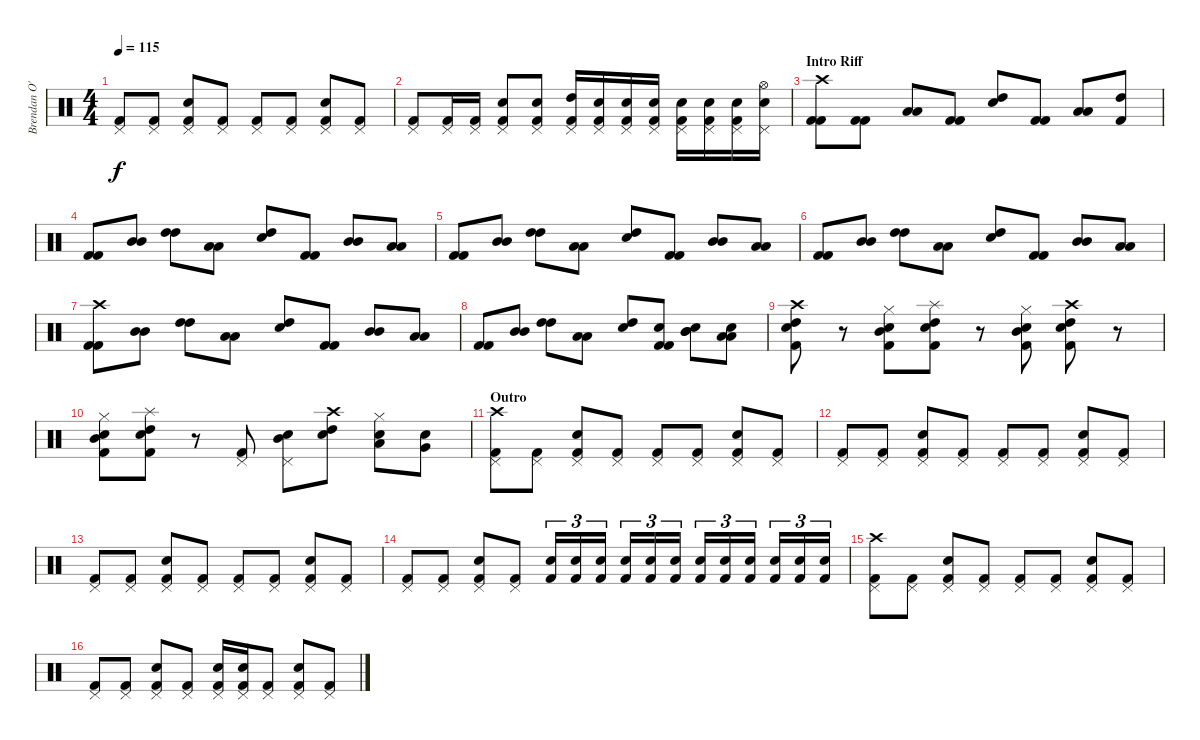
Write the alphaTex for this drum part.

\track ("Brendan O'Neill" "Brendan O'") {instrument percussion}
\staff {score}
\articulation defaults
\ts (4 4)
\tempo 115
\clef neutral
\ks c
("Pedal Hi-Hat (hit)" "Kick (hit) 2").8{dy f} ("Pedal Hi-Hat (hit)" "Kick (hit) 2").8 ("Pedal Hi-Hat (hit)" "Snare (hit) 2" "Kick (hit) 2").8 ("Pedal Hi-Hat (hit)" "Kick (hit) 2").8 ("Pedal Hi-Hat (hit)" "Kick (hit) 2").8 ("Pedal Hi-Hat (hit)" "Kick (hit) 2").8 ("Pedal Hi-Hat (hit)" "Snare (hit) 2" "Kick (hit) 2").8 ("Pedal Hi-Hat (hit)" "Kick (hit) 2").8 |
("Pedal Hi-Hat (hit)" "Kick (hit) 2").8 ("Pedal Hi-Hat (hit)" "Kick (hit) 2").16 ("Pedal Hi-Hat (hit)" "Kick (hit) 2").16 ("Pedal Hi-Hat (hit)" "Snare (hit) 2" "Kick (hit) 2").8 ("Pedal Hi-Hat (hit)" "Electric Snare (hit)" "Kick (hit) 2").8 ("Pedal Hi-Hat (hit)" "High Tom (hit)" "Kick (hit) 2").16 ("Pedal Hi-Hat (hit)" "Snare (hit) 2" "Kick (hit) 2").16 ("Pedal Hi-Hat (hit)" "Snare (hit) 2" "Kick (hit) 2").16 ("Pedal Hi-Hat (hit)" "Electric Snare (hit)" "Kick (hit) 2").16 ("Pedal Hi-Hat (hit)" "Snare (hit) 2" "Kick (hit) 2").16 ("Pedal Hi-Hat (hit)" "Snare (hit) 2" "Kick (hit) 2").16 ("Pedal Hi-Hat (hit)" "Snare (hit) 2" "Kick (hit) 2").16 ("Pedal Hi-Hat (hit)" "Snare (hit) 2" "Hi-Hat (open)").16 |
\section ("" "Intro Riff")
("Crash high (hit)" "Kick (hit) 2" "Kick (hit) 2").8 ("Kick (hit) 2" "Kick (hit) 2").8 ("Low Tom (hit)" "Low Tom (hit)").8 ("Kick (hit) 2" "Kick (hit) 2").8 ("High Tom (hit)" "Electric Snare (hit)").8 ("Kick (hit) 2" "Kick (hit) 2").8 ("Low Tom (hit)" "Low Tom (hit)").8 ("High Tom (hit)" "Kick (hit) 2").8 |
("Kick (hit) 2" "Kick (hit) 2").8 ("Mid Tom (hit)" "Mid Tom (hit)").8 ("High Tom (hit)" "High Tom (hit)").8 ("Low Tom (hit)" "Low Tom (hit)").8 ("High Tom (hit)" "Electric Snare (hit)").8 ("Kick (hit) 2" "Kick (hit) 2").8 ("Mid Tom (hit)" "Mid Tom (hit)").8 ("Low Tom (hit)" "Low Tom (hit)").8 |
("Kick (hit) 2" "Kick (hit) 2").8 ("Mid Tom (hit)" "Mid Tom (hit)").8 ("High Tom (hit)" "High Tom (hit)").8 ("Low Tom (hit)" "Low Tom (hit)").8 ("High Tom (hit)" "Electric Snare (hit)").8 ("Kick (hit) 2" "Kick (hit) 2").8 ("Mid Tom (hit)" "Mid Tom (hit)").8 ("Low Tom (hit)" "Low Tom (hit)").8 |
("Kick (hit) 2" "Kick (hit) 2").8 ("Mid Tom (hit)" "Mid Tom (hit)").8 ("High Tom (hit)" "High Tom (hit)").8 ("Low Tom (hit)" "Low Tom (hit)").8 ("High Tom (hit)" "Electric Snare (hit)").8 ("Kick (hit) 2" "Kick (hit) 2").8 ("Mid Tom (hit)" "Mid Tom (hit)").8 ("Low Tom (hit)" "Low Tom (hit)").8 |
("Crash high (hit)" "Kick (hit) 2" "Kick (hit) 2").8 ("Mid Tom (hit)" "Mid Tom (hit)").8 ("High Tom (hit)" "High Tom (hit)").8 ("Low Tom (hit)" "Low Tom (hit)").8 ("High Tom (hit)" "Electric Snare (hit)").8 ("Kick (hit) 2" "Kick (hit) 2").8 ("Mid Tom (hit)" "Mid Tom (hit)").8 ("Low Tom (hit)" "Low Tom (hit)").8 |
("Kick (hit) 2" "Kick (hit) 2").8 ("Mid Tom (hit)" "Mid Tom (hit)").8 ("High Tom (hit)" "High Tom (hit)").8 ("Low Tom (hit)" "Low Tom (hit)").8 ("High Tom (hit)" "Electric Snare (hit)").8 ("Electric Snare (hit)" "Kick (hit) 2" "Kick (hit) 2").8 ("Snare (hit) 2" "Mid Tom (hit)" "Mid Tom (hit)").8 ("Electric Snare (hit)" "Low Tom (hit)" "Low Tom (hit)").8 |
("Crash high (hit)" "High Tom (hit)" "Electric Snare (hit)" "Kick (hit) 2").8 r.8 ("Hi-Hat (closed)" "Mid Tom (hit)" "Snare (hit) 2" "Kick (hit) 2").8 ("Splash (hit)" "High Tom (hit)" "Electric Snare (hit)" "Kick (hit) 2").8 r.8 ("Hi-Hat (closed)" "Mid Tom (hit)" "Snare (hit) 2" "Kick (hit) 2").8 ("Crash high (hit)" "High Tom (hit)" "Electric Snare (hit)" "Kick (hit) 2").8 r.8 |
("Hi-Hat (closed)" "Mid Tom (hit)" "Snare (hit) 2" "Kick (hit) 2").8 ("Splash (hit)" "High Tom (hit)" "Electric Snare (hit)" "Kick (hit) 2").8 r.8 ("Pedal Hi-Hat (hit)" "Kick (hit) 2").8 ("Pedal Hi-Hat (hit)" "Mid Tom (hit)" "Electric Snare (hit)").8 ("Crash high (hit)" "High Tom (hit)" "Electric Snare (hit)").8 ("Hi-Hat (closed)" "Low Tom (hit)" "Snare (hit) 2").8 ("Very Low Tom (hit)" "Snare (hit) 2").8 |
\section ("" "Outro")
("Crash high (hit)" "Pedal Hi-Hat (hit)" "Kick (hit) 2").8 ("Pedal Hi-Hat (hit)" "Kick (hit) 2").8 ("Pedal Hi-Hat (hit)" "Snare (hit) 2" "Kick (hit) 2").8 ("Pedal Hi-Hat (hit)" "Kick (hit) 2").8 ("Pedal Hi-Hat (hit)" "Kick (hit) 2").8 ("Pedal Hi-Hat (hit)" "Kick (hit) 2").8 ("Pedal Hi-Hat (hit)" "Snare (hit) 2" "Kick (hit) 2").8 ("Pedal Hi-Hat (hit)" "Kick (hit) 2").8 |
("Pedal Hi-Hat (hit)" "Kick (hit) 2").8 ("Pedal Hi-Hat (hit)" "Kick (hit) 2").8 ("Pedal Hi-Hat (hit)" "Snare (hit) 2" "Kick (hit) 2").8 ("Pedal Hi-Hat (hit)" "Kick (hit) 2").8 ("Pedal Hi-Hat (hit)" "Kick (hit) 2").8 ("Pedal Hi-Hat (hit)" "Kick (hit) 2").8 ("Pedal Hi-Hat (hit)" "Snare (hit) 2" "Kick (hit) 2").8 ("Pedal Hi-Hat (hit)" "Kick (hit) 2").8 |
("Pedal Hi-Hat (hit)" "Kick (hit) 2").8 ("Pedal Hi-Hat (hit)" "Kick (hit) 2").8 ("Pedal Hi-Hat (hit)" "Snare (hit) 2" "Kick (hit) 2").8 ("Pedal Hi-Hat (hit)" "Kick (hit) 2").8 ("Pedal Hi-Hat (hit)" "Kick (hit) 2").8 ("Pedal Hi-Hat (hit)" "Kick (hit) 2").8 ("Pedal Hi-Hat (hit)" "Snare (hit) 2" "Kick (hit) 2").8 ("Pedal Hi-Hat (hit)" "Kick (hit) 2").8 |
("Pedal Hi-Hat (hit)" "Kick (hit) 2").8 ("Pedal Hi-Hat (hit)" "Kick (hit) 2").8 ("Pedal Hi-Hat (hit)" "Snare (hit) 2" "Kick (hit) 2").8 ("Pedal Hi-Hat (hit)" "Kick (hit) 2").8 ("Electric Snare (hit)" "Kick (hit) 2").16{tu (3 2)} ("Electric Snare (hit)" "Kick (hit) 2").16{tu (3 2)} ("Electric Snare (hit)" "Kick (hit) 2").16{tu (3 2)} ("Snare (hit) 2" "Kick (hit) 2").16{tu (3 2)} ("Snare (hit) 2" "Kick (hit) 2").16{tu (3 2)} ("Snare (hit) 2" "Kick (hit) 2").16{tu (3 2)} ("Electric Snare (hit)" "Kick (hit) 2").16{tu (3 2)} ("Electric Snare (hit)" "Kick (hit) 2").16{tu (3 2)} ("Electric Snare (hit)" "Kick (hit) 2").16{tu (3 2)} ("Snare (hit) 2" "Kick (hit) 2").16{tu (3 2)} ("Snare (hit) 2" "Kick (hit) 2").16{tu (3 2)} ("Snare (hit) 2" "Kick (hit) 2").16{tu (3 2)} |
("Crash high (hit)" "Pedal Hi-Hat (hit)" "Kick (hit) 2").8 ("Pedal Hi-Hat (hit)" "Kick (hit) 2").8 ("Pedal Hi-Hat (hit)" "Snare (hit) 2" "Kick (hit) 2").8 ("Pedal Hi-Hat (hit)" "Kick (hit) 2").8 ("Pedal Hi-Hat (hit)" "Kick (hit) 2").8 ("Pedal Hi-Hat (hit)" "Kick (hit) 2").8 ("Pedal Hi-Hat (hit)" "Snare (hit) 2" "Kick (hit) 2").8 ("Pedal Hi-Hat (hit)" "Kick (hit) 2").8 |
("Pedal Hi-Hat (hit)" "Kick (hit) 2").8 ("Pedal Hi-Hat (hit)" "Kick (hit) 2").8 ("Pedal Hi-Hat (hit)" "Snare (hit) 2" "Kick (hit) 2").8 ("Pedal Hi-Hat (hit)" "Kick (hit) 2").8 ("Pedal Hi-Hat (hit)" "Electric Snare (hit)" "Kick (hit) 2").16 ("Pedal Hi-Hat (hit)" "Electric Snare (hit)" "Kick (hit) 2").16 ("Pedal Hi-Hat (hit)" "Kick (hit) 2").8 ("Pedal Hi-Hat (hit)" "Snare (hit) 2" "Kick (hit) 2").8 ("Pedal Hi-Hat (hit)" "Kick (hit) 2").8
